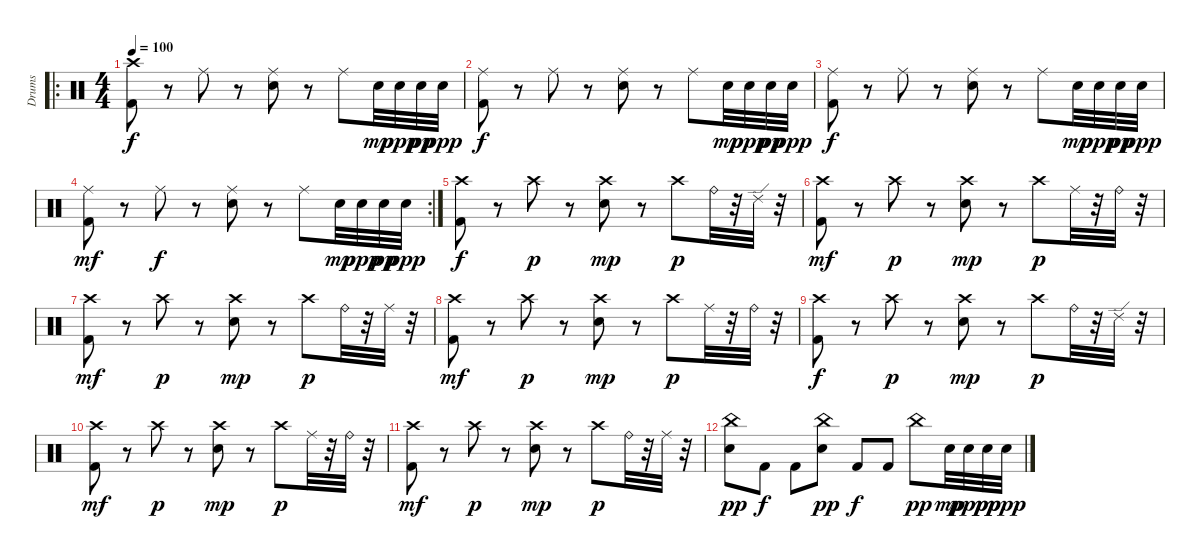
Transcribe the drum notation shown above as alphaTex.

\track ("Drums" "Drums") {instrument percussion}
\staff {score}
\articulation defaults
\ro
\ts (4 4)
\tempo 100
\clef neutral
\ks c
("Crash high (hit)" "Kick (hit) 2").8{dy f} r.8 "Ride (middle)".8 r.8 ("Ride (middle)" "Snare (hit) 2").8 r.8 "Ride (middle)".8 "Snare (hit) 2".32{dy mp} "Snare (hit) 2".32{dy ppp} "Snare (hit) 2".32{dy pp} "Snare (hit) 2".32{dy ppp} |
("Ride (middle)" "Kick (hit) 2").8{dy f} r.8 "Ride (middle)".8 r.8 ("Ride (middle)" "Snare (hit) 2").8 r.8 "Ride (middle)".8 "Snare (hit) 2".32{dy mp} "Snare (hit) 2".32{dy ppp} "Snare (hit) 2".32{dy pp} "Snare (hit) 2".32{dy ppp} |
("Ride (middle)" "Kick (hit) 2").8{dy f} r.8 "Ride (middle)".8 r.8 ("Ride (middle)" "Snare (hit) 2").8 r.8 "Ride (middle)".8 "Snare (hit) 2".32{dy mp} "Snare (hit) 2".32{dy ppp} "Snare (hit) 2".32{dy pp} "Snare (hit) 2".32{dy ppp} |
\rc 2
("Ride (middle)" "Kick (hit) 2").8{dy mf} r.8 "Ride (middle)".8{dy f} r.8 ("Ride (middle)" "Snare (hit) 2").8 r.8 "Ride (middle)".8 "Snare (hit) 2".32{dy mp} "Snare (hit) 2".32{dy ppp} "Snare (hit) 2".32{dy pp} "Snare (hit) 2".32{dy ppp} |
("Crash high (hit)" "Kick (hit) 2").8{dy f} r.8 "Crash high (hit)".8{dy p} r.8 ("Crash high (hit)" "Snare (hit) 2").8{dy mp} r.8 "Crash high (hit)".8{dy p} "Ride (bell)".32 r.32 "Ride (edge) 2".32 r.32 |
("Crash high (hit)" "Kick (hit) 2").8{dy mf} r.8 "Crash high (hit)".8{dy p} r.8 ("Crash high (hit)" "Snare (hit) 2").8{dy mp} r.8 "Crash high (hit)".8{dy p} "Ride (middle)".32 r.32 "Ride (bell)".32 r.32 |
("Crash high (hit)" "Kick (hit) 2").8{dy mf} r.8 "Crash high (hit)".8{dy p} r.8 ("Crash high (hit)" "Snare (hit) 2").8{dy mp} r.8 "Crash high (hit)".8{dy p} "Ride (bell)".32 r.32 "Ride (middle)".32 r.32 |
("Crash high (hit)" "Kick (hit) 2").8{dy mf} r.8 "Crash high (hit)".8{dy p} r.8 ("Crash high (hit)" "Snare (hit) 2").8{dy mp} r.8 "Crash high (hit)".8{dy p} "Ride (middle)".32 r.32 "Ride (bell)".32 r.32 |
("Crash high (hit)" "Kick (hit) 2").8{dy f volume 0} r.8 "Crash high (hit)".8{dy p} r.8 ("Crash high (hit)" "Snare (hit) 2").8{dy mp} r.8 "Crash high (hit)".8{dy p} "Ride (bell)".32 r.32 "Ride (edge) 2".32 r.32 |
("Crash high (hit)" "Kick (hit) 2").8{dy mf} r.8 "Crash high (hit)".8{dy p} r.8 ("Crash high (hit)" "Snare (hit) 2").8{dy mp} r.8 "Crash high (hit)".8{dy p} "Ride (middle)".32 r.32 "Ride (bell)".32 r.32 |
("Crash high (hit)" "Kick (hit) 2").8{dy mf} r.8 "Crash high (hit)".8{dy p} r.8 ("Crash high (hit)" "Snare (hit) 2").8{dy mp} r.8 "Crash high (hit)".8{dy p} "Ride (bell)".32 r.32 "Ride (middle)".32 r.32 |
("China (hit)" "Snare (hit) 2").8{dy pp} "Kick (hit) 2".8{dy f} "Kick (hit) 2".8 ("China (hit)" "Snare (hit) 2").8{dy pp} "Kick (hit) 2".8{dy f} "Kick (hit) 2".8 "China (hit)".8{dy pp} "Snare (hit) 2".32{dy mp} "Snare (hit) 2".32{dy ppp} "Snare (hit) 2".32{dy pp} "Snare (hit) 2".32{dy ppp}
